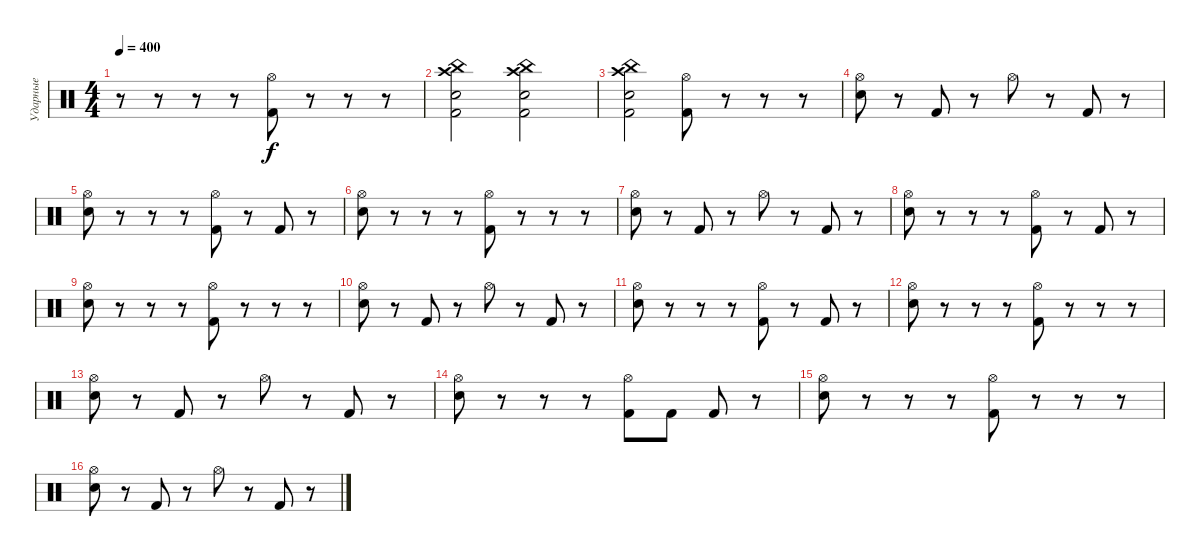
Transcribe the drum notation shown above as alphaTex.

\track ("Ударные" "Ударные") {instrument percussion}
\staff {score}
\articulation defaults
\ts (4 4)
\tempo 400
\clef neutral
\ks c
r.8{dy f} r.8 r.8 r.8 ("Kick (hit) 2" "Hi-Hat (open)").8 r.8 r.8 r.8 |
("Kick (hit) 2" "Electric Snare (hit)" "Crash high (hit)" "China (hit)").2 ("China (hit)" "Crash high (hit)" "Kick (hit) 2" "Electric Snare (hit)").2 |
("Kick (hit) 2" "Electric Snare (hit)" "Crash high (hit)" "China (hit)").2 ("Kick (hit) 2" "Hi-Hat (open)").8 r.8 r.8 r.8 |
("Electric Snare (hit)" "Hi-Hat (open)").8 r.8 "Kick (hit) 2".8 r.8 "Hi-Hat (open)".8 r.8 "Kick (hit) 2".8 r.8 |
("Electric Snare (hit)" "Hi-Hat (open)").8 r.8 r.8 r.8 ("Kick (hit) 2" "Hi-Hat (open)").8 r.8 "Kick (hit) 2".8 r.8 |
("Electric Snare (hit)" "Hi-Hat (open)").8 r.8 r.8 r.8 ("Kick (hit) 2" "Hi-Hat (open)").8 r.8 r.8 r.8 |
("Electric Snare (hit)" "Hi-Hat (open)").8 r.8 "Kick (hit) 2".8 r.8 "Hi-Hat (open)".8 r.8 "Kick (hit) 2".8 r.8 |
("Electric Snare (hit)" "Hi-Hat (open)").8 r.8 r.8 r.8 ("Kick (hit) 2" "Hi-Hat (open)").8 r.8 "Kick (hit) 2".8 r.8 |
("Electric Snare (hit)" "Hi-Hat (open)").8 r.8 r.8 r.8 ("Kick (hit) 2" "Hi-Hat (open)").8 r.8 r.8 r.8 |
("Electric Snare (hit)" "Hi-Hat (open)").8 r.8 "Kick (hit) 2".8 r.8 "Hi-Hat (open)".8 r.8 "Kick (hit) 2".8 r.8 |
("Electric Snare (hit)" "Hi-Hat (open)").8 r.8 r.8 r.8 ("Kick (hit) 2" "Hi-Hat (open)").8 r.8 "Kick (hit) 2".8 r.8 |
("Electric Snare (hit)" "Hi-Hat (open)").8 r.8 r.8 r.8 ("Kick (hit) 2" "Hi-Hat (open)").8 r.8 r.8 r.8 |
("Electric Snare (hit)" "Hi-Hat (open)").8 r.8 "Kick (hit) 2".8 r.8 "Hi-Hat (open)".8 r.8 "Kick (hit) 2".8 r.8 |
("Electric Snare (hit)" "Hi-Hat (open)").8 r.8 r.8 r.8 ("Kick (hit) 2" "Hi-Hat (open)").8 "Kick (hit) 2".8 "Kick (hit) 2".8 r.8 |
("Electric Snare (hit)" "Hi-Hat (open)").8 r.8 r.8 r.8 ("Kick (hit) 2" "Hi-Hat (open)").8 r.8 r.8 r.8 |
("Electric Snare (hit)" "Hi-Hat (open)").8 r.8 "Kick (hit) 2".8 r.8 "Hi-Hat (open)".8 r.8 "Kick (hit) 2".8 r.8
